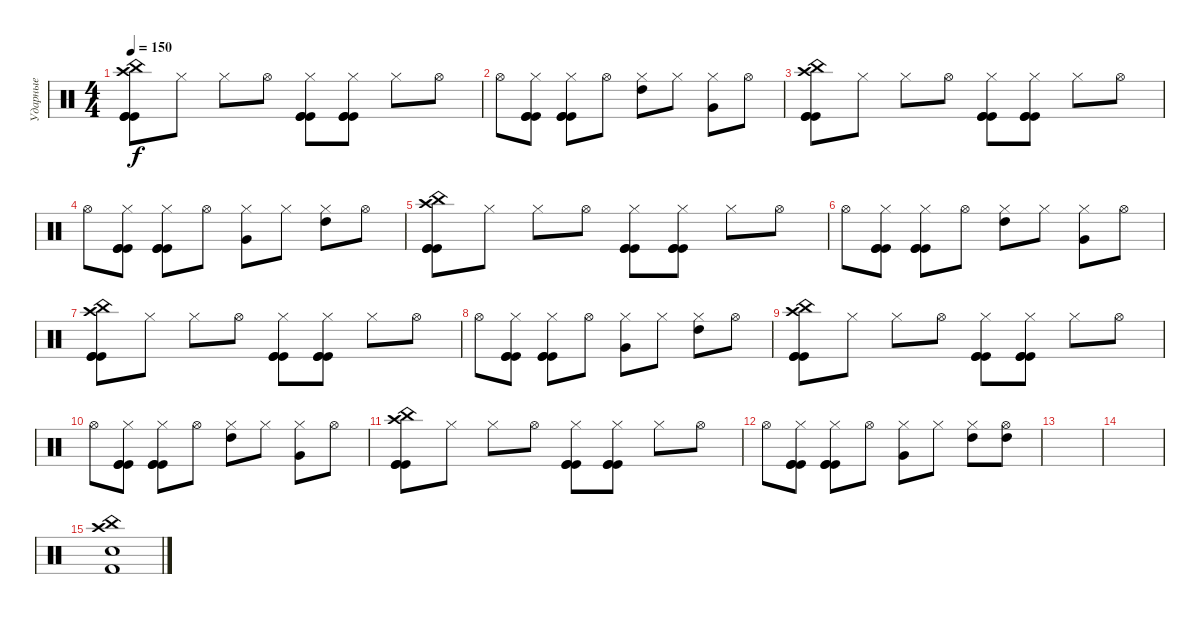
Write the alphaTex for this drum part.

\track ("Ударные" "Ударные") {instrument percussion}
\staff {score}
\articulation defaults
\ts (4 4)
\tempo 150
\clef neutral
\ks c
("Crash high (hit)" "China (hit)" "Kick (hit)" "Kick (hit)" "Kick (hit)").8{dy f} "Hi-Hat (closed)".8 "Hi-Hat (closed)".8 "Hi-Hat (open)".8 ("Hi-Hat (closed)" "Kick (hit)" "Kick (hit)" "Kick (hit)").8 ("Hi-Hat (closed)" "Kick (hit)" "Kick (hit)" "Kick (hit)").8 "Hi-Hat (closed)".8 "Hi-Hat (open)".8 |
"Hi-Hat (open)".8 ("Hi-Hat (closed)" "Kick (hit)" "Kick (hit)" "Kick (hit)").8 ("Hi-Hat (closed)" "Kick (hit)" "Kick (hit)" "Kick (hit)").8 "Hi-Hat (open)".8 ("Hi-Hat (closed)" "High Tom (hit)").8 "Hi-Hat (closed)".8 ("Hi-Hat (closed)" "Very Low Tom (hit)").8 "Hi-Hat (open)".8 |
("Crash high (hit)" "China (hit)" "Kick (hit)" "Kick (hit)" "Kick (hit)").8 "Hi-Hat (closed)".8 "Hi-Hat (closed)".8 "Hi-Hat (open)".8 ("Hi-Hat (closed)" "Kick (hit)" "Kick (hit)" "Kick (hit)").8 ("Hi-Hat (closed)" "Kick (hit)" "Kick (hit)" "Kick (hit)").8 "Hi-Hat (closed)".8 "Hi-Hat (open)".8 |
"Hi-Hat (open)".8 ("Hi-Hat (closed)" "Kick (hit)" "Kick (hit)" "Kick (hit)").8 ("Hi-Hat (closed)" "Kick (hit)" "Kick (hit)" "Kick (hit)").8 "Hi-Hat (open)".8 ("Hi-Hat (closed)" "Very Low Tom (hit)").8 "Hi-Hat (closed)".8 ("Hi-Hat (closed)" "High Tom (hit)").8 "Hi-Hat (open)".8 |
("Crash high (hit)" "China (hit)" "Kick (hit)" "Kick (hit)" "Kick (hit)").8 "Hi-Hat (closed)".8 "Hi-Hat (closed)".8 "Hi-Hat (open)".8 ("Hi-Hat (closed)" "Kick (hit)" "Kick (hit)" "Kick (hit)").8 ("Hi-Hat (closed)" "Kick (hit)" "Kick (hit)" "Kick (hit)").8 "Hi-Hat (closed)".8 "Hi-Hat (open)".8 |
"Hi-Hat (open)".8 ("Hi-Hat (closed)" "Kick (hit)" "Kick (hit)" "Kick (hit)").8 ("Hi-Hat (closed)" "Kick (hit)" "Kick (hit)" "Kick (hit)").8 "Hi-Hat (open)".8 ("Hi-Hat (closed)" "High Tom (hit)").8 "Hi-Hat (closed)".8 ("Hi-Hat (closed)" "Very Low Tom (hit)").8 "Hi-Hat (open)".8 |
("Crash high (hit)" "China (hit)" "Kick (hit)" "Kick (hit)" "Kick (hit)").8 "Hi-Hat (closed)".8 "Hi-Hat (closed)".8 "Hi-Hat (open)".8 ("Hi-Hat (closed)" "Kick (hit)" "Kick (hit)" "Kick (hit)").8 ("Hi-Hat (closed)" "Kick (hit)" "Kick (hit)" "Kick (hit)").8 "Hi-Hat (closed)".8 "Hi-Hat (open)".8 |
"Hi-Hat (open)".8 ("Hi-Hat (closed)" "Kick (hit)" "Kick (hit)" "Kick (hit)").8 ("Hi-Hat (closed)" "Kick (hit)" "Kick (hit)" "Kick (hit)").8 "Hi-Hat (open)".8 ("Hi-Hat (closed)" "Very Low Tom (hit)").8 "Hi-Hat (closed)".8 ("Hi-Hat (closed)" "High Tom (hit)").8 "Hi-Hat (open)".8 |
("Crash high (hit)" "China (hit)" "Kick (hit)" "Kick (hit)" "Kick (hit)").8 "Hi-Hat (closed)".8 "Hi-Hat (closed)".8 "Hi-Hat (open)".8 ("Hi-Hat (closed)" "Kick (hit)" "Kick (hit)" "Kick (hit)").8 ("Hi-Hat (closed)" "Kick (hit)" "Kick (hit)" "Kick (hit)").8 "Hi-Hat (closed)".8 "Hi-Hat (open)".8 |
"Hi-Hat (open)".8 ("Hi-Hat (closed)" "Kick (hit)" "Kick (hit)" "Kick (hit)").8 ("Hi-Hat (closed)" "Kick (hit)" "Kick (hit)" "Kick (hit)").8 "Hi-Hat (open)".8 ("Hi-Hat (closed)" "High Tom (hit)").8 "Hi-Hat (closed)".8 ("Hi-Hat (closed)" "Very Low Tom (hit)").8 "Hi-Hat (open)".8 |
("Crash high (hit)" "China (hit)" "Kick (hit)" "Kick (hit)" "Kick (hit)").8 "Hi-Hat (closed)".8 "Hi-Hat (closed)".8 "Hi-Hat (open)".8 ("Hi-Hat (closed)" "Kick (hit)" "Kick (hit)" "Kick (hit)").8 ("Hi-Hat (closed)" "Kick (hit)" "Kick (hit)" "Kick (hit)").8 "Hi-Hat (closed)".8 "Hi-Hat (open)".8 |
"Hi-Hat (open)".8 ("Hi-Hat (closed)" "Kick (hit)" "Kick (hit)" "Kick (hit)").8 ("Hi-Hat (closed)" "Kick (hit)" "Kick (hit)" "Kick (hit)").8 "Hi-Hat (open)".8 ("Hi-Hat (closed)" "Very Low Tom (hit)").8 "Hi-Hat (closed)".8 ("Hi-Hat (closed)" "High Tom (hit)").8 ("Hi-Hat (open)" "High Tom (hit)").8 |
|
|
("Crash high (hit)" "China (hit)" "Snare (hit) 2" "Kick (hit) 2").1
